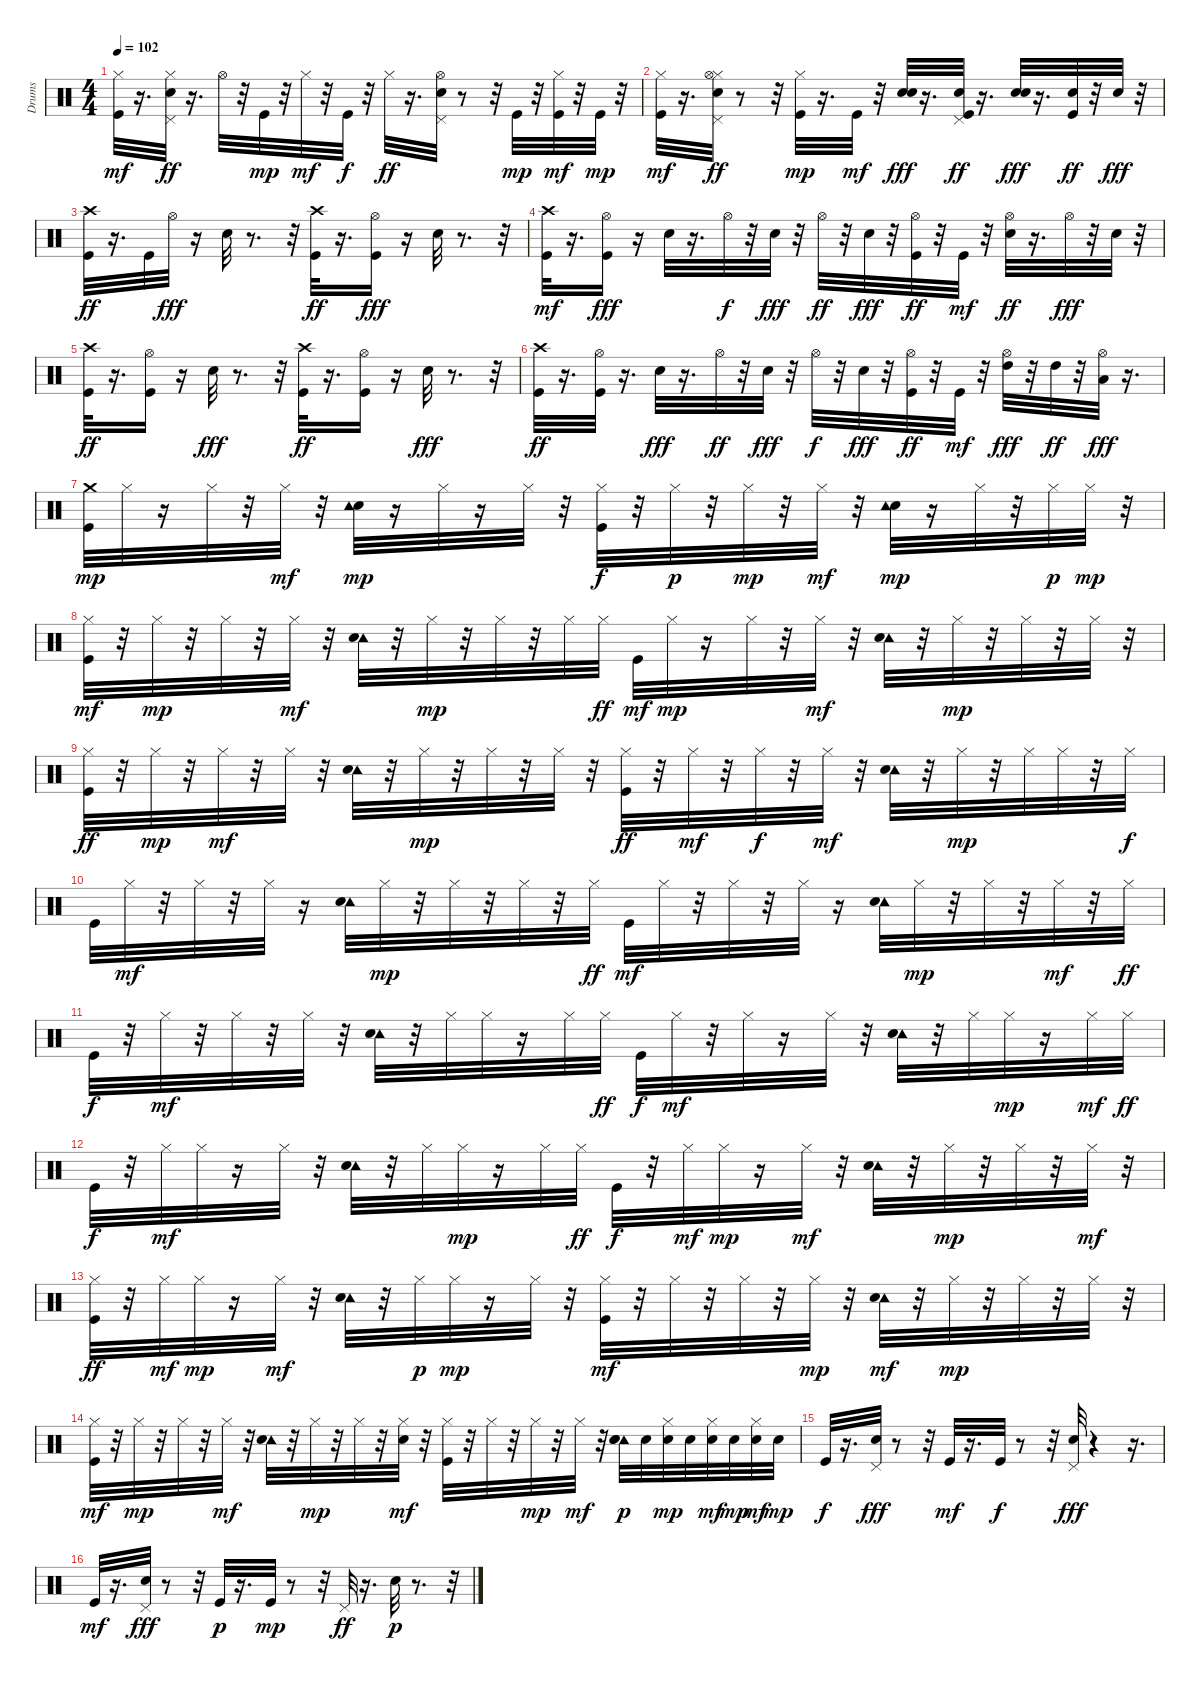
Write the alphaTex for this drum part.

\track ("Drums" "Drums") {instrument percussion}
\staff {score}
\articulation defaults
\ts (4 4)
\tempo 102
\clef neutral
\ks c
("Kick (hit)" "Hi-Hat (closed)").32{dy mf} r.16{d} ("Snare (hit) 2" "Hi-Hat (closed)" "Pedal Hi-Hat (hit)").32{dy ff} r.16{d} "Hi-Hat (open)".32 r.32 "Kick (hit)".32{dy mp} r.32 "Hi-Hat (closed)".32{dy mf} r.32 "Kick (hit)".32{dy f} r.32 "Hi-Hat (closed)".32{dy ff} r.16{d} ("Snare (hit) 2" "Pedal Hi-Hat (hit)" "Hi-Hat (open)").32 r.8 r.32 "Kick (hit)".32{dy mp} r.32 ("Kick (hit)" "Hi-Hat (closed)").32{dy mf} r.32 "Kick (hit)".32{dy mp} r.32 |
("Kick (hit)" "Hi-Hat (closed)").32{dy mf} r.16{d} ("Snare (hit) 2" "Hi-Hat (closed)" "Pedal Hi-Hat (hit)" "Hi-Hat (open)").32{dy ff} r.8 r.32 ("Kick (hit)" "Hi-Hat (closed)").32{dy mp} r.16{d} "Kick (hit)".32{dy mf} r.32 ("Electric Snare (hit)" "Electric Snare (hit)").32{dy fff} r.16{d} ("Kick (hit)" "Snare (hit) 2" "Pedal Hi-Hat (hit)").32{dy ff} r.16{d} ("Electric Snare (hit)" "Electric Snare (hit)").32{dy fff} r.16{d} ("Electric Snare (hit)" "Kick (hit)").32{dy ff} r.32 "Electric Snare (hit)".32{dy fff} r.32 |
("Crash high (hit)" "Kick (hit)").32{dy ff} r.16{d} "Kick (hit)".32 "Hi-Hat (open)".32{dy fff} r.16 "Electric Snare (hit)".32 r.8{d} r.32 ("Kick (hit)" "Crash high (hit)").32{dy ff} r.16{d} ("Kick (hit)" "Hi-Hat (open)").16{dy fff} r.16 "Electric Snare (hit)".32 r.8{d} r.32 |
("Kick (hit)" "Crash high (hit)").32{dy mf} r.16{d} ("Kick (hit)" "Hi-Hat (open)").16{dy fff} r.16 "Electric Snare (hit)".32 r.16{d} "Hi-Hat (open)".32{dy f} r.32 "Electric Snare (hit)".32{dy fff} r.32 "Hi-Hat (open)".32{dy ff} r.32 "Electric Snare (hit)".32{dy fff} r.32 ("Kick (hit)" "Hi-Hat (open)").32{dy ff} r.32 "Kick (hit)".32{dy mf} r.32 ("Electric Snare (hit)" "Hi-Hat (open)").32{dy ff} r.16{d} "Hi-Hat (open)".32{dy fff} r.32 "Electric Snare (hit)".32 r.32 |
("Kick (hit)" "Crash high (hit)").32{dy ff} r.16{d} ("Hi-Hat (open)" "Kick (hit)").16 r.16 "Electric Snare (hit)".32{dy fff} r.8{d} r.32 ("Kick (hit)" "Crash high (hit)").32{dy ff} r.16{d} ("Kick (hit)" "Hi-Hat (open)").16 r.16 "Electric Snare (hit)".32{dy fff} r.8{d} r.32 |
("Kick (hit)" "Crash high (hit)").32{dy ff} r.16{d} ("Kick (hit)" "Hi-Hat (open)").32 r.16{d} "Electric Snare (hit)".32{dy fff} r.16{d} "Hi-Hat (open)".32{dy ff} r.32 "Electric Snare (hit)".32{dy fff} r.32 "Hi-Hat (open)".32{dy f} r.32 "Electric Snare (hit)".32{dy fff} r.32 ("Hi-Hat (open)" "Kick (hit)").32{dy ff} r.32 "Kick (hit)".32{dy mf} r.32 ("Hi-Hat (open)" "High Tom (hit)").32{dy fff} r.32 "High Tom (hit)".32{dy ff} r.32 ("Hi-Hat (open)" "Low Tom (hit)").32{dy fff} r.16{d} |
("Kick (hit)" "Crash medium (hit)").32{dy mp} "Hi-Hat (closed)".32 r.16 "Hi-Hat (closed)".32 r.32 "Hi-Hat (closed)".32{dy mf} r.32 ("Electric Snare (hit)" "Tambourine (hit)").32{dy mp} r.16 "Hi-Hat (closed)".32 r.16 "Hi-Hat (closed)".32 r.32 ("Kick (hit)" "Hi-Hat (closed)").32{dy f} r.32 "Hi-Hat (closed)".32{dy p} r.32 "Hi-Hat (closed)".32{dy mp} r.32 "Hi-Hat (closed)".32{dy mf} r.32 ("Electric Snare (hit)" "Tambourine (hit)").32{dy mp} r.16 "Hi-Hat (closed)".32 r.32 "Hi-Hat (closed)".32{dy p} "Hi-Hat (closed)".32{dy mp} r.32 |
("Hi-Hat (closed)" "Kick (hit)").32{dy mf} r.32 "Hi-Hat (closed)".32{dy mp} r.32 "Hi-Hat (closed)".32 r.32 "Hi-Hat (closed)".32{dy mf} r.32 ("Tambourine (hit)" "Electric Snare (hit)").32 r.32 "Hi-Hat (closed)".32{dy mp} r.32 "Hi-Hat (closed)".32 r.32 "Hi-Hat (closed)".32 "Hi-Hat (closed)".32{dy ff} "Kick (hit)".32{dy mf} "Hi-Hat (closed)".32{dy mp} r.16 "Hi-Hat (closed)".32 r.32 "Hi-Hat (closed)".32{dy mf} r.32 ("Tambourine (hit)" "Electric Snare (hit)").32 r.32 "Hi-Hat (closed)".32{dy mp} r.32 "Hi-Hat (closed)".32 r.32 "Hi-Hat (closed)".32 r.32 |
("Kick (hit)" "Hi-Hat (closed)").32{dy ff} r.32 "Hi-Hat (closed)".32{dy mp} r.32 "Hi-Hat (closed)".32{dy mf} r.32 "Hi-Hat (closed)".32 r.32 ("Tambourine (hit)" "Electric Snare (hit)").32 r.32 "Hi-Hat (closed)".32{dy mp} r.32 "Hi-Hat (closed)".32 r.32 "Hi-Hat (closed)".32 r.32 ("Kick (hit)" "Hi-Hat (closed)").32{dy ff} r.32 "Hi-Hat (closed)".32{dy mf} r.32 "Hi-Hat (closed)".32{dy f} r.32 "Hi-Hat (closed)".32{dy mf} r.32 ("Tambourine (hit)" "Electric Snare (hit)").32 r.32 "Hi-Hat (closed)".32{dy mp} r.32 "Hi-Hat (closed)".32 "Hi-Hat (closed)".32 r.32 "Hi-Hat (closed)".32{dy f} |
"Kick (hit)".32 "Hi-Hat (closed)".32{dy mf} r.32 "Hi-Hat (closed)".32 r.32 "Hi-Hat (closed)".32 r.16 ("Tambourine (hit)" "Electric Snare (hit)").32 "Hi-Hat (closed)".32{dy mp} r.32 "Hi-Hat (closed)".32 r.32 "Hi-Hat (closed)".32 r.32 "Hi-Hat (closed)".32{dy ff} "Kick (hit)".32{dy mf} "Hi-Hat (closed)".32 r.32 "Hi-Hat (closed)".32 r.32 "Hi-Hat (closed)".32 r.16 ("Tambourine (hit)" "Electric Snare (hit)").32 "Hi-Hat (closed)".32{dy mp} r.32 "Hi-Hat (closed)".32 r.32 "Hi-Hat (closed)".32{dy mf} r.32 "Hi-Hat (closed)".32{dy ff} |
"Kick (hit)".32{dy f} r.32 "Hi-Hat (closed)".32{dy mf} r.32 "Hi-Hat (closed)".32 r.32 "Hi-Hat (closed)".32 r.32 ("Tambourine (hit)" "Electric Snare (hit)").32 r.32 "Hi-Hat (closed)".32 "Hi-Hat (closed)".32 r.16 "Hi-Hat (closed)".32 "Hi-Hat (closed)".32{dy ff} "Kick (hit)".32{dy f} "Hi-Hat (closed)".32{dy mf} r.32 "Hi-Hat (closed)".32 r.16 "Hi-Hat (closed)".32 r.32 ("Tambourine (hit)" "Electric Snare (hit)").32 r.32 "Hi-Hat (closed)".32 "Hi-Hat (closed)".32{dy mp} r.16 "Hi-Hat (closed)".32{dy mf} "Hi-Hat (closed)".32{dy ff} |
"Kick (hit)".32{dy f} r.32 "Hi-Hat (closed)".32{dy mf} "Hi-Hat (closed)".32 r.16 "Hi-Hat (closed)".32 r.32 ("Tambourine (hit)" "Electric Snare (hit)").32 r.32 "Hi-Hat (closed)".32 "Hi-Hat (closed)".32{dy mp} r.16 "Hi-Hat (closed)".32 "Hi-Hat (closed)".32{dy ff} "Kick (hit)".32{dy f} r.32 "Hi-Hat (closed)".32{dy mf} "Hi-Hat (closed)".32{dy mp} r.16 "Hi-Hat (closed)".32{dy mf} r.32 ("Tambourine (hit)" "Electric Snare (hit)").32 r.32 "Hi-Hat (closed)".32{dy mp} r.32 "Hi-Hat (closed)".32 r.32 "Hi-Hat (closed)".32{dy mf} r.32 |
("Kick (hit)" "Hi-Hat (closed)").32{dy ff} r.32 "Hi-Hat (closed)".32{dy mf} "Hi-Hat (closed)".32{dy mp} r.16 "Hi-Hat (closed)".32{dy mf} r.32 ("Tambourine (hit)" "Electric Snare (hit)").32 r.32 "Hi-Hat (closed)".32{dy p} "Hi-Hat (closed)".32{dy mp} r.16 "Hi-Hat (closed)".32 r.32 ("Kick (hit)" "Hi-Hat (closed)").32{dy mf} r.32 "Hi-Hat (closed)".32 r.32 "Hi-Hat (closed)".32 r.32 "Hi-Hat (closed)".32{dy mp} r.32 ("Tambourine (hit)" "Electric Snare (hit)").32{dy mf} r.32 "Hi-Hat (closed)".32{dy mp} r.32 "Hi-Hat (closed)".32 r.32 "Hi-Hat (closed)".32 r.32 |
("Hi-Hat (closed)" "Kick (hit)").32{dy mf} r.32 "Hi-Hat (closed)".32{dy mp} r.32 "Hi-Hat (closed)".32 r.32 "Hi-Hat (closed)".32{dy mf} r.32 ("Tambourine (hit)" "Electric Snare (hit)").32 r.32 "Hi-Hat (closed)".32{dy mp} r.32 "Hi-Hat (closed)".32 r.32 ("Hi-Hat (closed)" "Electric Snare (hit)").32{dy mf} r.32 ("Kick (hit)" "Hi-Hat (closed)").32 r.32 "Hi-Hat (closed)".32 r.32 "Hi-Hat (closed)".32{dy mp} r.32 "Hi-Hat (closed)".32{dy mf} r.32 ("Tambourine (hit)" "Electric Snare (hit)" "Snare (hit) 2").32{dy p} "Snare (hit) 2".32 ("Snare (hit) 2" "Hi-Hat (closed)").32{dy mp} "Snare (hit) 2".32 ("Snare (hit) 2" "Hi-Hat (closed)").32{dy mf} "Snare (hit) 2".32{dy mp} ("Snare (hit) 2" "Hi-Hat (closed)").32{dy mf} "Snare (hit) 2".32{dy mp} |
"Kick (hit)".32{dy f} r.16{d} ("Snare (hit) 2" "Pedal Hi-Hat (hit)").32{dy fff} r.8 r.32 "Kick (hit)".32{dy mf} r.16{d} "Kick (hit)".32{dy f} r.8 r.32 ("Snare (hit) 2" "Pedal Hi-Hat (hit)").32{dy fff} r.4 r.16{d} |
"Kick (hit)".32{dy mf} r.16{d} ("Snare (hit) 2" "Pedal Hi-Hat (hit)").32{dy fff} r.8 r.32 "Kick (hit)".32{dy p} r.16{d} "Kick (hit)".32{dy mp} r.8 r.32 "Pedal Hi-Hat (hit)".32{dy ff} r.16{d} "Snare (hit) 2".32{dy p} r.8{d} r.32
